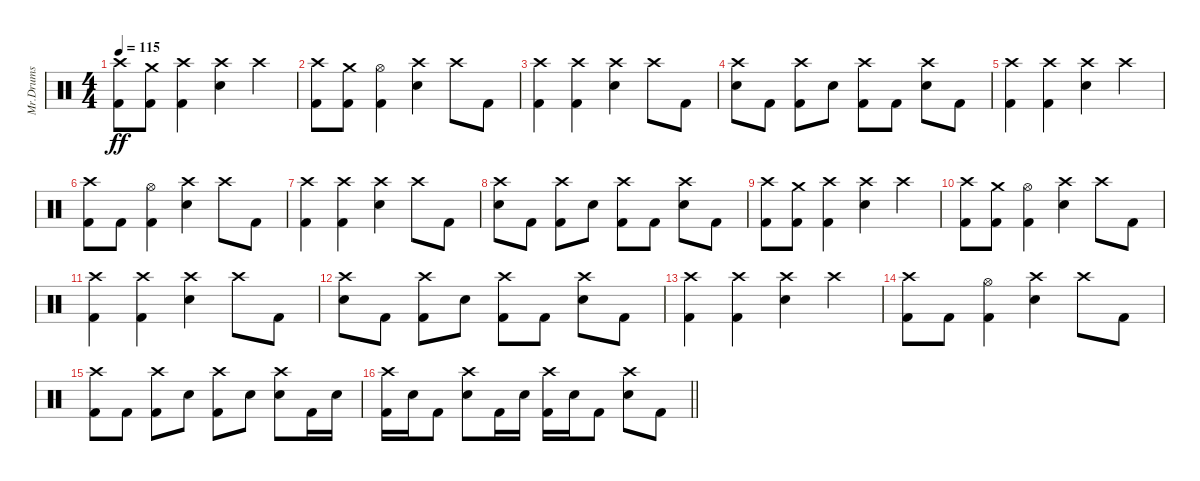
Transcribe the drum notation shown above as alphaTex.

\track ("Mr.Drums" "Mr.Drums") {instrument percussion}
\staff {score}
\articulation defaults
\ts (4 4)
\tempo 115
\clef neutral
\ks c
("Crash high (hit)" "Kick (hit) 2").8{dy ff} ("Crash medium (hit)" "Kick (hit) 2").8 ("Crash high (hit)" "Kick (hit) 2").4 ("Crash high (hit)" "Electric Snare (hit)").4 "Crash high (hit)".4 |
("Crash high (hit)" "Kick (hit) 2").8 ("Crash medium (hit)" "Kick (hit) 2").8 ("Hi-Hat (open)" "Kick (hit) 2").4 ("Crash high (hit)" "Electric Snare (hit)").4 "Crash high (hit)".8 "Kick (hit) 2".8 |
("Crash high (hit)" "Kick (hit) 2").4 ("Crash high (hit)" "Kick (hit) 2").4 ("Crash high (hit)" "Electric Snare (hit)").4 "Crash high (hit)".8 "Kick (hit) 2".8 |
("Crash high (hit)" "Electric Snare (hit)").8 "Kick (hit) 2".8 ("Crash high (hit)" "Kick (hit) 2").8 "Electric Snare (hit)".8 ("Crash high (hit)" "Kick (hit) 2").8 "Kick (hit) 2".8 ("Crash high (hit)" "Electric Snare (hit)").8 "Kick (hit) 2".8 |
("Crash high (hit)" "Kick (hit) 2").4 ("Crash high (hit)" "Kick (hit) 2").4 ("Crash high (hit)" "Electric Snare (hit)").4 "Crash high (hit)".4 |
("Crash high (hit)" "Kick (hit) 2").8 "Kick (hit) 2".8 ("Hi-Hat (open)" "Kick (hit) 2").4 ("Crash high (hit)" "Electric Snare (hit)").4 "Crash high (hit)".8 "Kick (hit) 2".8 |
("Crash high (hit)" "Kick (hit) 2").4 ("Crash high (hit)" "Kick (hit) 2").4 ("Crash high (hit)" "Electric Snare (hit)").4 "Crash high (hit)".8 "Kick (hit) 2".8 |
("Crash high (hit)" "Electric Snare (hit)").8 "Kick (hit) 2".8 ("Crash high (hit)" "Kick (hit) 2").8 "Electric Snare (hit)".8 ("Crash high (hit)" "Kick (hit) 2").8 "Kick (hit) 2".8 ("Crash high (hit)" "Electric Snare (hit)").8 "Kick (hit) 2".8 |
("Crash high (hit)" "Kick (hit) 2").8 ("Crash medium (hit)" "Kick (hit) 2").8 ("Crash high (hit)" "Kick (hit) 2").4 ("Crash high (hit)" "Electric Snare (hit)").4 "Crash high (hit)".4 |
("Crash high (hit)" "Kick (hit) 2").8 ("Crash medium (hit)" "Kick (hit) 2").8 ("Hi-Hat (open)" "Kick (hit) 2").4 ("Crash high (hit)" "Electric Snare (hit)").4 "Crash high (hit)".8 "Kick (hit) 2".8 |
("Crash high (hit)" "Kick (hit) 2").4 ("Crash high (hit)" "Kick (hit) 2").4 ("Crash high (hit)" "Electric Snare (hit)").4 "Crash high (hit)".8 "Kick (hit) 2".8 |
("Crash high (hit)" "Electric Snare (hit)").8 "Kick (hit) 2".8 ("Crash high (hit)" "Kick (hit) 2").8 "Electric Snare (hit)".8 ("Crash high (hit)" "Kick (hit) 2").8 "Kick (hit) 2".8 ("Crash high (hit)" "Electric Snare (hit)").8 "Kick (hit) 2".8 |
("Crash high (hit)" "Kick (hit) 2").4 ("Crash high (hit)" "Kick (hit) 2").4 ("Crash high (hit)" "Electric Snare (hit)").4 "Crash high (hit)".4 |
("Crash high (hit)" "Kick (hit) 2").8 "Kick (hit) 2".8 ("Hi-Hat (open)" "Kick (hit) 2").4 ("Crash high (hit)" "Electric Snare (hit)").4 "Crash high (hit)".8 "Kick (hit) 2".8 |
("Crash high (hit)" "Kick (hit) 2").8 "Kick (hit) 2".8 ("Crash high (hit)" "Kick (hit) 2").8 "Electric Snare (hit)".8 ("Crash high (hit)" "Kick (hit) 2").8 "Electric Snare (hit)".8 ("Crash high (hit)" "Electric Snare (hit)").8 "Kick (hit) 2".16 "Electric Snare (hit)".16 |
\barLineRight lightlight
("Crash high (hit)" "Kick (hit) 2").16 "Electric Snare (hit)".16 "Kick (hit) 2".8 ("Crash high (hit)" "Electric Snare (hit)").8 "Kick (hit) 2".16 "Electric Snare (hit)".16 ("Crash high (hit)" "Kick (hit) 2").16 "Electric Snare (hit)".16 "Kick (hit) 2".8 ("Crash high (hit)" "Electric Snare (hit)").8 "Kick (hit) 2".8
